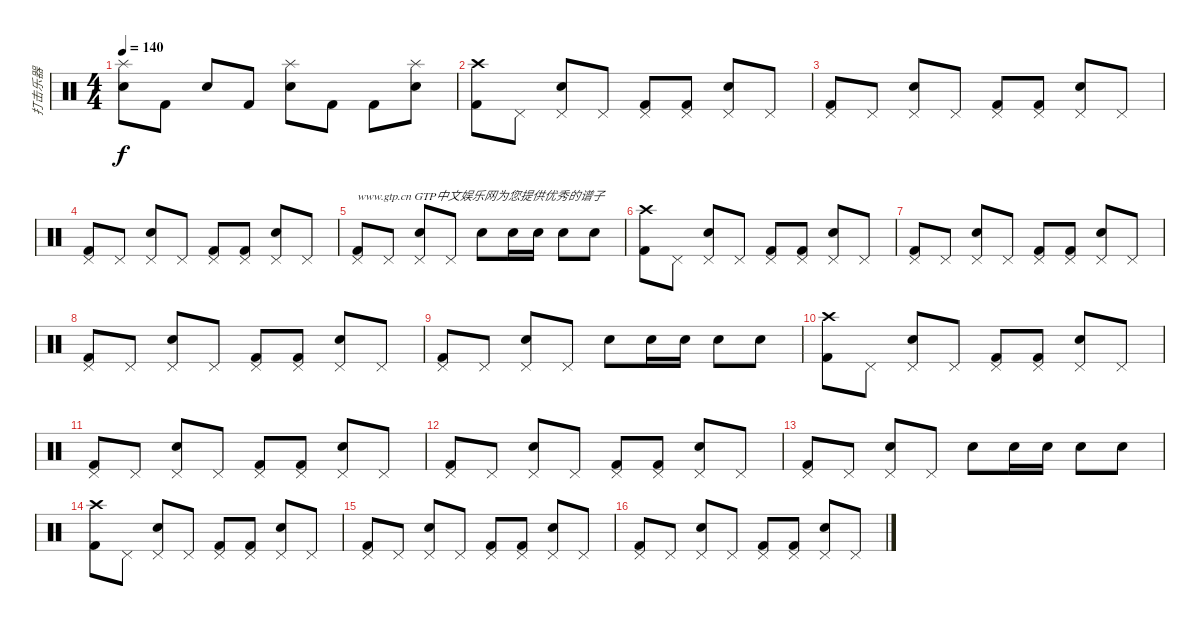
\track ("打击乐器" "打击乐器") {instrument percussion}
\staff {score}
\articulation defaults
\ts (4 4)
\tempo 140
\clef neutral
\ks c
("Snare (hit) 2" "Splash (hit)").8{dy f} "Kick (hit) 2".8 "Snare (hit) 2".8 "Kick (hit) 2".8 ("Snare (hit) 2" "Splash (hit)").8 "Kick (hit) 2".8 "Kick (hit) 2".8 ("Snare (hit) 2" "Splash (hit)").8 |
("Crash high (hit)" "Kick (hit) 2").8 "Pedal Hi-Hat (hit)".8 ("Pedal Hi-Hat (hit)" "Snare (hit) 2").8 "Pedal Hi-Hat (hit)".8 ("Pedal Hi-Hat (hit)" "Kick (hit) 2").8 ("Pedal Hi-Hat (hit)" "Kick (hit) 2").8 ("Pedal Hi-Hat (hit)" "Snare (hit) 2").8 "Pedal Hi-Hat (hit)".8 |
("Pedal Hi-Hat (hit)" "Kick (hit) 2").8 "Pedal Hi-Hat (hit)".8 ("Pedal Hi-Hat (hit)" "Snare (hit) 2").8 "Pedal Hi-Hat (hit)".8 ("Pedal Hi-Hat (hit)" "Kick (hit) 2").8 ("Pedal Hi-Hat (hit)" "Kick (hit) 2").8 ("Pedal Hi-Hat (hit)" "Snare (hit) 2").8 "Pedal Hi-Hat (hit)".8 |
("Pedal Hi-Hat (hit)" "Kick (hit) 2").8 "Pedal Hi-Hat (hit)".8 ("Pedal Hi-Hat (hit)" "Snare (hit) 2").8 "Pedal Hi-Hat (hit)".8 ("Pedal Hi-Hat (hit)" "Kick (hit) 2").8 ("Pedal Hi-Hat (hit)" "Kick (hit) 2").8 ("Pedal Hi-Hat (hit)" "Snare (hit) 2").8 "Pedal Hi-Hat (hit)".8 |
("Pedal Hi-Hat (hit)" "Kick (hit) 2").8{txt "www.gtp.cn GTP中文娱乐网为您提供优秀的谱子"} "Pedal Hi-Hat (hit)".8 ("Pedal Hi-Hat (hit)" "Snare (hit) 2").8 "Pedal Hi-Hat (hit)".8 "Snare (hit) 2".8 "Snare (hit) 2".16 "Snare (hit) 2".16 "Snare (hit) 2".8 "Snare (hit) 2".8 |
("Crash high (hit)" "Kick (hit) 2").8 "Pedal Hi-Hat (hit)".8 ("Pedal Hi-Hat (hit)" "Snare (hit) 2").8 "Pedal Hi-Hat (hit)".8 ("Pedal Hi-Hat (hit)" "Kick (hit) 2").8 ("Pedal Hi-Hat (hit)" "Kick (hit) 2").8 ("Pedal Hi-Hat (hit)" "Snare (hit) 2").8 "Pedal Hi-Hat (hit)".8 |
("Pedal Hi-Hat (hit)" "Kick (hit) 2").8 "Pedal Hi-Hat (hit)".8 ("Pedal Hi-Hat (hit)" "Snare (hit) 2").8 "Pedal Hi-Hat (hit)".8 ("Pedal Hi-Hat (hit)" "Kick (hit) 2").8 ("Pedal Hi-Hat (hit)" "Kick (hit) 2").8 ("Pedal Hi-Hat (hit)" "Snare (hit) 2").8 "Pedal Hi-Hat (hit)".8 |
("Pedal Hi-Hat (hit)" "Kick (hit) 2").8 "Pedal Hi-Hat (hit)".8 ("Pedal Hi-Hat (hit)" "Snare (hit) 2").8 "Pedal Hi-Hat (hit)".8 ("Pedal Hi-Hat (hit)" "Kick (hit) 2").8 ("Pedal Hi-Hat (hit)" "Kick (hit) 2").8 ("Pedal Hi-Hat (hit)" "Snare (hit) 2").8 "Pedal Hi-Hat (hit)".8 |
("Pedal Hi-Hat (hit)" "Kick (hit) 2").8 "Pedal Hi-Hat (hit)".8 ("Pedal Hi-Hat (hit)" "Snare (hit) 2").8 "Pedal Hi-Hat (hit)".8 "Snare (hit) 2".8 "Snare (hit) 2".16 "Snare (hit) 2".16 "Snare (hit) 2".8 "Snare (hit) 2".8 |
("Crash high (hit)" "Kick (hit) 2").8 "Pedal Hi-Hat (hit)".8 ("Pedal Hi-Hat (hit)" "Snare (hit) 2").8 "Pedal Hi-Hat (hit)".8 ("Pedal Hi-Hat (hit)" "Kick (hit) 2").8 ("Pedal Hi-Hat (hit)" "Kick (hit) 2").8 ("Pedal Hi-Hat (hit)" "Snare (hit) 2").8 "Pedal Hi-Hat (hit)".8 |
("Pedal Hi-Hat (hit)" "Kick (hit) 2").8 "Pedal Hi-Hat (hit)".8 ("Pedal Hi-Hat (hit)" "Snare (hit) 2").8 "Pedal Hi-Hat (hit)".8 ("Pedal Hi-Hat (hit)" "Kick (hit) 2").8 ("Pedal Hi-Hat (hit)" "Kick (hit) 2").8 ("Pedal Hi-Hat (hit)" "Snare (hit) 2").8 "Pedal Hi-Hat (hit)".8 |
("Pedal Hi-Hat (hit)" "Kick (hit) 2").8 "Pedal Hi-Hat (hit)".8 ("Pedal Hi-Hat (hit)" "Snare (hit) 2").8 "Pedal Hi-Hat (hit)".8 ("Pedal Hi-Hat (hit)" "Kick (hit) 2").8 ("Pedal Hi-Hat (hit)" "Kick (hit) 2").8 ("Pedal Hi-Hat (hit)" "Snare (hit) 2").8 "Pedal Hi-Hat (hit)".8 |
("Pedal Hi-Hat (hit)" "Kick (hit) 2").8 "Pedal Hi-Hat (hit)".8 ("Pedal Hi-Hat (hit)" "Snare (hit) 2").8 "Pedal Hi-Hat (hit)".8 "Snare (hit) 2".8 "Snare (hit) 2".16 "Snare (hit) 2".16 "Snare (hit) 2".8 "Snare (hit) 2".8 |
("Crash high (hit)" "Kick (hit) 2").8 "Pedal Hi-Hat (hit)".8 ("Pedal Hi-Hat (hit)" "Snare (hit) 2").8 "Pedal Hi-Hat (hit)".8 ("Pedal Hi-Hat (hit)" "Kick (hit) 2").8 ("Pedal Hi-Hat (hit)" "Kick (hit) 2").8 ("Pedal Hi-Hat (hit)" "Snare (hit) 2").8 "Pedal Hi-Hat (hit)".8 |
("Pedal Hi-Hat (hit)" "Kick (hit) 2").8 "Pedal Hi-Hat (hit)".8 ("Pedal Hi-Hat (hit)" "Snare (hit) 2").8 "Pedal Hi-Hat (hit)".8 ("Pedal Hi-Hat (hit)" "Kick (hit) 2").8 ("Pedal Hi-Hat (hit)" "Kick (hit) 2").8 ("Pedal Hi-Hat (hit)" "Snare (hit) 2").8 "Pedal Hi-Hat (hit)".8 |
("Pedal Hi-Hat (hit)" "Kick (hit) 2").8 "Pedal Hi-Hat (hit)".8 ("Pedal Hi-Hat (hit)" "Snare (hit) 2").8 "Pedal Hi-Hat (hit)".8 ("Pedal Hi-Hat (hit)" "Kick (hit) 2").8 ("Pedal Hi-Hat (hit)" "Kick (hit) 2").8 ("Pedal Hi-Hat (hit)" "Snare (hit) 2").8 "Pedal Hi-Hat (hit)".8
